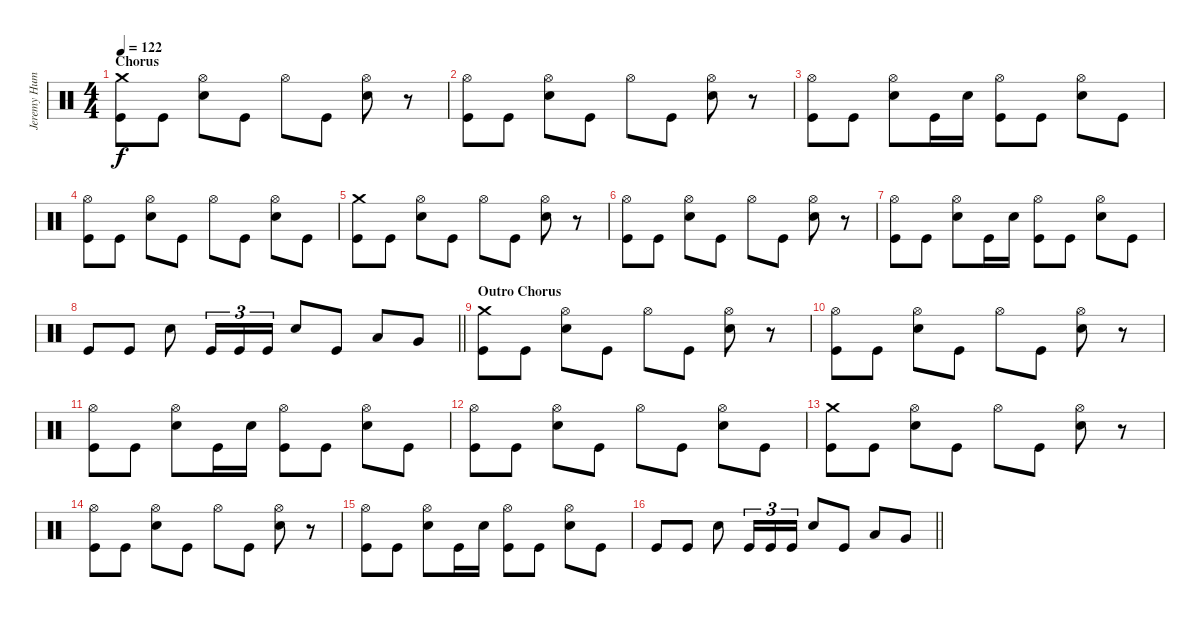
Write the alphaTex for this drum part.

\track ("Jeremy Hummel Drums]" "Jeremy Hum") {instrument percussion}
\staff {score}
\articulation defaults
\ts (4 4)
\section ("" "Chorus")
\tempo 122
\clef neutral
\ks c
("Crash medium (hit)" "Kick (hit)").8{dy f} "Kick (hit)".8 ("Hi-Hat (open)" "Electric Snare (hit)").8 "Kick (hit)".8 "Hi-Hat (open)".8 "Kick (hit)".8 ("Hi-Hat (open)" "Electric Snare (hit)").8 r.8 |
("Hi-Hat (open)" "Kick (hit)").8 "Kick (hit)".8 ("Hi-Hat (open)" "Electric Snare (hit)").8 "Kick (hit)".8 "Hi-Hat (open)".8 "Kick (hit)".8 ("Hi-Hat (open)" "Electric Snare (hit)").8 r.8 |
("Hi-Hat (open)" "Kick (hit)").8 "Kick (hit)".8 ("Hi-Hat (open)" "Electric Snare (hit)").8 "Kick (hit)".16 "Electric Snare (hit)".16 ("Hi-Hat (open)" "Kick (hit)").8 "Kick (hit)".8 ("Hi-Hat (open)" "Electric Snare (hit)").8 "Kick (hit)".8 |
("Hi-Hat (open)" "Kick (hit)").8 "Kick (hit)".8 ("Hi-Hat (open)" "Electric Snare (hit)").8 "Kick (hit)".8 "Hi-Hat (open)".8 "Kick (hit)".8 ("Hi-Hat (open)" "Electric Snare (hit)").8 "Kick (hit)".8 |
("Crash medium (hit)" "Kick (hit)").8 "Kick (hit)".8 ("Hi-Hat (open)" "Electric Snare (hit)").8 "Kick (hit)".8 "Hi-Hat (open)".8 "Kick (hit)".8 ("Hi-Hat (open)" "Electric Snare (hit)").8 r.8 |
("Hi-Hat (open)" "Kick (hit)").8 "Kick (hit)".8 ("Hi-Hat (open)" "Electric Snare (hit)").8 "Kick (hit)".8 "Hi-Hat (open)".8 "Kick (hit)".8 ("Hi-Hat (open)" "Electric Snare (hit)").8 r.8 |
("Hi-Hat (open)" "Kick (hit)").8 "Kick (hit)".8 ("Hi-Hat (open)" "Electric Snare (hit)").8 "Kick (hit)".16 "Electric Snare (hit)".16 ("Hi-Hat (open)" "Kick (hit)").8 "Kick (hit)".8 ("Hi-Hat (open)" "Electric Snare (hit)").8 "Kick (hit)".8 |
\barLineRight lightlight "Kick (hit)".8 "Kick (hit)".8 "Electric Snare (hit)".8 "Kick (hit)".16{tu (3 2)} "Kick (hit)".16{tu (3 2)} "Kick (hit)".16{tu (3 2)} "Electric Snare (hit)".8 "Kick (hit)".8 "Low Tom (hit)".8 "Very Low Tom (hit)".8
|
\section ("" "Outro Chorus")
("Crash medium (hit)" "Kick (hit)").8 "Kick (hit)".8 ("Hi-Hat (open)" "Electric Snare (hit)").8 "Kick (hit)".8 "Hi-Hat (open)".8 "Kick (hit)".8 ("Hi-Hat (open)" "Electric Snare (hit)").8 r.8 |
("Hi-Hat (open)" "Kick (hit)").8 "Kick (hit)".8 ("Hi-Hat (open)" "Electric Snare (hit)").8 "Kick (hit)".8 "Hi-Hat (open)".8 "Kick (hit)".8 ("Hi-Hat (open)" "Electric Snare (hit)").8 r.8 |
("Hi-Hat (open)" "Kick (hit)").8 "Kick (hit)".8 ("Hi-Hat (open)" "Electric Snare (hit)").8 "Kick (hit)".16 "Electric Snare (hit)".16 ("Hi-Hat (open)" "Kick (hit)").8 "Kick (hit)".8 ("Hi-Hat (open)" "Electric Snare (hit)").8 "Kick (hit)".8 |
("Hi-Hat (open)" "Kick (hit)").8 "Kick (hit)".8 ("Hi-Hat (open)" "Electric Snare (hit)").8 "Kick (hit)".8 "Hi-Hat (open)".8 "Kick (hit)".8 ("Hi-Hat (open)" "Electric Snare (hit)").8 "Kick (hit)".8 |
("Crash medium (hit)" "Kick (hit)").8 "Kick (hit)".8 ("Hi-Hat (open)" "Electric Snare (hit)").8 "Kick (hit)".8 "Hi-Hat (open)".8 "Kick (hit)".8 ("Hi-Hat (open)" "Electric Snare (hit)").8 r.8 |
("Hi-Hat (open)" "Kick (hit)").8 "Kick (hit)".8 ("Hi-Hat (open)" "Electric Snare (hit)").8 "Kick (hit)".8 "Hi-Hat (open)".8 "Kick (hit)".8 ("Hi-Hat (open)" "Electric Snare (hit)").8 r.8 |
("Hi-Hat (open)" "Kick (hit)").8 "Kick (hit)".8 ("Hi-Hat (open)" "Electric Snare (hit)").8 "Kick (hit)".16 "Electric Snare (hit)".16 ("Hi-Hat (open)" "Kick (hit)").8 "Kick (hit)".8 ("Hi-Hat (open)" "Electric Snare (hit)").8 "Kick (hit)".8 |
\barLineRight lightlight "Kick (hit)".8 "Kick (hit)".8 "Electric Snare (hit)".8 "Kick (hit)".16{tu (3 2)} "Kick (hit)".16{tu (3 2)} "Kick (hit)".16{tu (3 2)} "Electric Snare (hit)".8 "Kick (hit)".8 "Low Tom (hit)".8 "Very Low Tom (hit)".8
